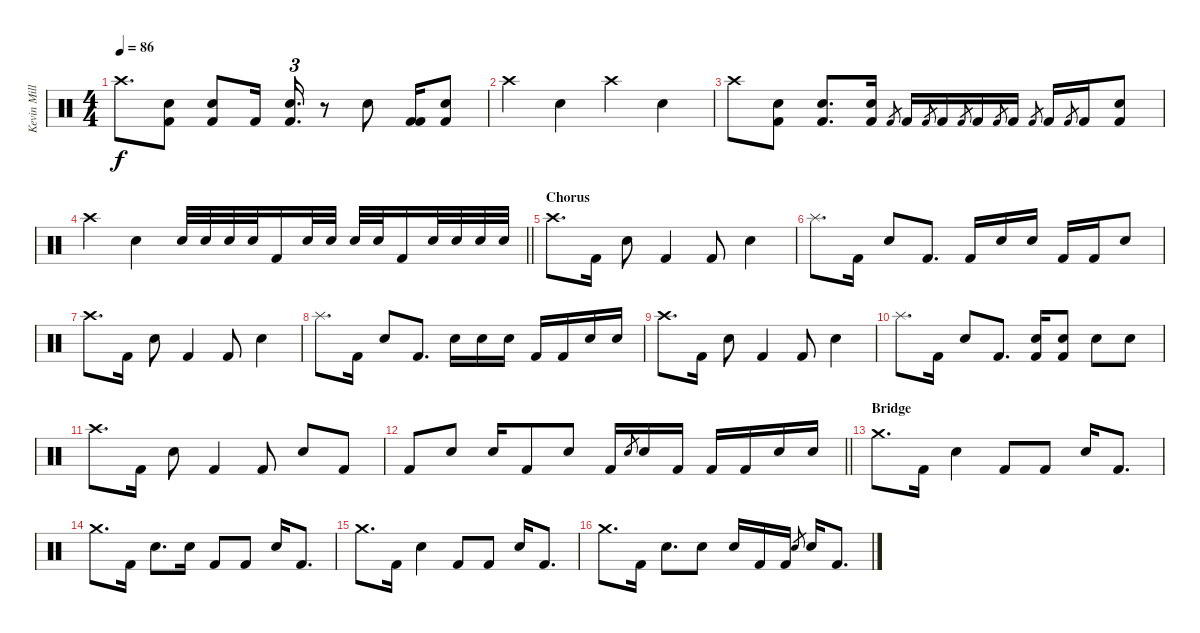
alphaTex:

\track ("Kevin Miller (Drums)" "Kevin Mill") {instrument percussion}
\staff {score}
\articulation defaults
\ts (4 4)
\tempo 86
\clef neutral
\ks c "Crash high (hit)".8{d dy f}
("Electric Snare (hit)" "Kick (hit) 2").8 ("Electric Snare (hit)" "Kick (hit) 2").8 "Kick (hit) 2".16 ("Electric Snare (hit)" "Kick (hit) 2").16{d tu (3 2)} r.8 "Electric Snare (hit)".8 ("Kick (hit) 2" "Kick (hit) 2").16 ("Electric Snare (hit)" "Kick (hit) 2").8 |
"Crash high (hit)".4 "Electric Snare (hit)".4 "Crash high (hit)".4 "Electric Snare (hit)".4 |
"Crash high (hit)".8 ("Electric Snare (hit)" "Kick (hit) 2").8 ("Electric Snare (hit)" "Kick (hit) 2").8{d} ("Electric Snare (hit)" "Kick (hit) 2").16 "Kick (hit) 2".8{gr} "Kick (hit) 2".16 "Kick (hit) 2".8{gr} "Kick (hit) 2".16 "Kick (hit) 2".8{gr} "Kick (hit) 2".16 "Kick (hit) 2".8{gr} "Kick (hit) 2".16 "Kick (hit) 2".8{gr} "Kick (hit) 2".16 "Kick (hit) 2".8{gr} "Kick (hit) 2".16 ("Electric Snare (hit)" "Kick (hit) 2").8 |
\barLineRight lightlight "Crash high (hit)".4 "Electric Snare (hit)".4 "Electric Snare (hit)".32 "Electric Snare (hit)".32 "Electric Snare (hit)".32 "Electric Snare (hit)".32 "Kick (hit) 2".16 "Electric Snare (hit)".32 "Electric Snare (hit)".32 "Electric Snare (hit)".32 "Electric Snare (hit)".32 "Kick (hit) 2".16 "Electric Snare (hit)".32 "Electric Snare (hit)".32 "Electric Snare (hit)".32 "Electric Snare (hit)".32
|
\section ("" "Chorus")
"Crash high (hit)".8{d} "Kick (hit) 2".16 "Electric Snare (hit)".8 "Kick (hit) 2".4 "Kick (hit) 2".8 "Electric Snare (hit)".4 |
"Splash (hit)".8{d} "Kick (hit) 2".16 "Electric Snare (hit)".8 "Kick (hit) 2".8{d} "Kick (hit) 2".16 "Electric Snare (hit)".16 "Electric Snare (hit)".16 "Kick (hit) 2".16 "Kick (hit) 2".16 "Electric Snare (hit)".8 |
"Crash high (hit)".8{d} "Kick (hit) 2".16 "Electric Snare (hit)".8 "Kick (hit) 2".4 "Kick (hit) 2".8 "Electric Snare (hit)".4 |
"Splash (hit)".8{d} "Kick (hit) 2".16 "Electric Snare (hit)".8 "Kick (hit) 2".8{d} "Electric Snare (hit)".16 "Electric Snare (hit)".16 "Electric Snare (hit)".16 "Kick (hit) 2".16 "Kick (hit) 2".16 "Electric Snare (hit)".16 "Electric Snare (hit)".16 |
"Crash high (hit)".8{d} "Kick (hit) 2".16 "Electric Snare (hit)".8 "Kick (hit) 2".4 "Kick (hit) 2".8 "Electric Snare (hit)".4 |
"Splash (hit)".8{d} "Kick (hit) 2".16 "Electric Snare (hit)".8 "Kick (hit) 2".8{d} ("Electric Snare (hit)" "Kick (hit) 2").16 ("Electric Snare (hit)" "Kick (hit) 2").8 "Electric Snare (hit)".8 "Electric Snare (hit)".8 |
"Crash high (hit)".8{d} "Kick (hit) 2".16 "Electric Snare (hit)".8 "Kick (hit) 2".4 "Kick (hit) 2".8 "Electric Snare (hit)".8 "Kick (hit) 2".8 |
\barLineRight lightlight "Kick (hit) 2".8 "Electric Snare (hit)".8 "Electric Snare (hit)".16 "Kick (hit) 2".8 "Electric Snare (hit)".8 "Kick (hit) 2".16 "Electric Snare (hit)".8{gr} "Electric Snare (hit)".16 "Kick (hit) 2".16 "Kick (hit) 2".16 "Kick (hit) 2".16 "Electric Snare (hit)".16 "Electric Snare (hit)".16
|
\section ("" "Bridge")
"Crash medium (hit)".8{d} "Kick (hit) 2".16 "Electric Snare (hit)".4 "Kick (hit) 2".8 "Kick (hit) 2".8 "Electric Snare (hit)".16 "Kick (hit) 2".8{d} |
"Crash medium (hit)".8{d} "Kick (hit) 2".16 "Electric Snare (hit)".8{d} "Electric Snare (hit)".16 "Kick (hit) 2".8 "Kick (hit) 2".8 "Electric Snare (hit)".16 "Kick (hit) 2".8{d} |
"Crash medium (hit)".8{d} "Kick (hit) 2".16 "Electric Snare (hit)".4 "Kick (hit) 2".8 "Kick (hit) 2".8 "Electric Snare (hit)".16 "Kick (hit) 2".8{d} |
"Crash medium (hit)".8{d} "Kick (hit) 2".16 "Electric Snare (hit)".8{d} "Electric Snare (hit)".8 "Electric Snare (hit)".16 "Kick (hit) 2".16 "Kick (hit) 2".16 "Electric Snare (hit)".8{gr} "Electric Snare (hit)".16 "Kick (hit) 2".8{d}
